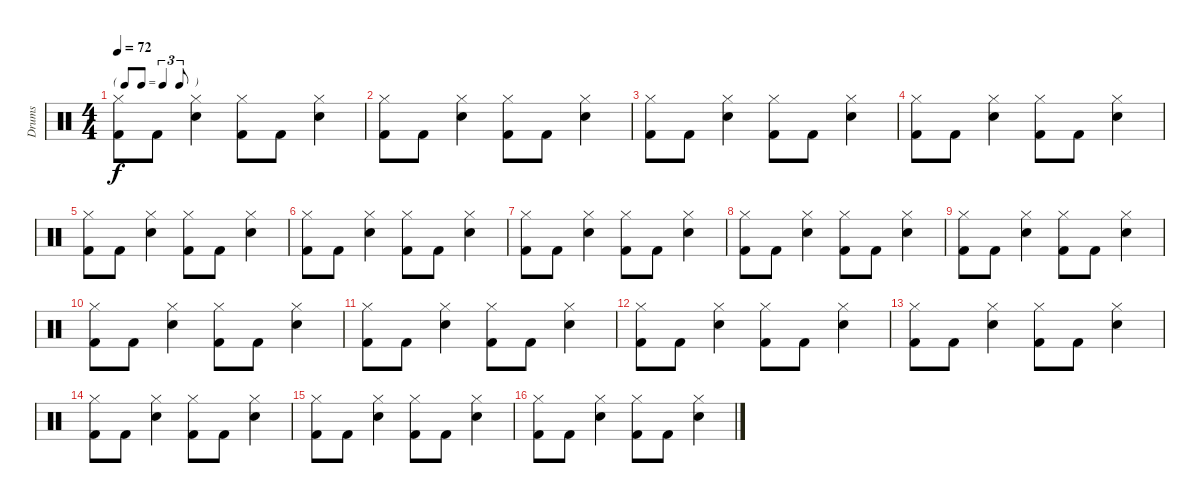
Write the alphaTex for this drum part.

\track ("Drums" "Drums") {instrument percussion}
\staff {score}
\articulation defaults
\ts (4 4)
\tf triplet8th
\tempo 72
\clef neutral
\ks c
("Hi-Hat (closed)" "Kick (hit) 2").8{dy f} "Kick (hit) 2".8 ("Hi-Hat (closed)" "Electric Snare (hit)").4 ("Hi-Hat (closed)" "Kick (hit) 2").8 "Kick (hit) 2".8 ("Hi-Hat (closed)" "Electric Snare (hit)").4 |
("Hi-Hat (closed)" "Kick (hit) 2").8 "Kick (hit) 2".8 ("Hi-Hat (closed)" "Electric Snare (hit)").4 ("Hi-Hat (closed)" "Kick (hit) 2").8 "Kick (hit) 2".8 ("Hi-Hat (closed)" "Electric Snare (hit)").4 |
("Hi-Hat (closed)" "Kick (hit) 2").8 "Kick (hit) 2".8 ("Hi-Hat (closed)" "Electric Snare (hit)").4 ("Hi-Hat (closed)" "Kick (hit) 2").8 "Kick (hit) 2".8 ("Hi-Hat (closed)" "Electric Snare (hit)").4 |
("Hi-Hat (closed)" "Kick (hit) 2").8 "Kick (hit) 2".8 ("Hi-Hat (closed)" "Electric Snare (hit)").4 ("Hi-Hat (closed)" "Kick (hit) 2").8 "Kick (hit) 2".8 ("Hi-Hat (closed)" "Electric Snare (hit)").4 |
("Hi-Hat (closed)" "Kick (hit) 2").8 "Kick (hit) 2".8 ("Hi-Hat (closed)" "Electric Snare (hit)").4 ("Hi-Hat (closed)" "Kick (hit) 2").8 "Kick (hit) 2".8 ("Hi-Hat (closed)" "Electric Snare (hit)").4 |
("Hi-Hat (closed)" "Kick (hit) 2").8 "Kick (hit) 2".8 ("Hi-Hat (closed)" "Electric Snare (hit)").4 ("Hi-Hat (closed)" "Kick (hit) 2").8 "Kick (hit) 2".8 ("Hi-Hat (closed)" "Electric Snare (hit)").4 |
("Hi-Hat (closed)" "Kick (hit) 2").8 "Kick (hit) 2".8 ("Hi-Hat (closed)" "Electric Snare (hit)").4 ("Hi-Hat (closed)" "Kick (hit) 2").8 "Kick (hit) 2".8 ("Hi-Hat (closed)" "Electric Snare (hit)").4 |
("Hi-Hat (closed)" "Kick (hit) 2").8 "Kick (hit) 2".8 ("Hi-Hat (closed)" "Electric Snare (hit)").4 ("Hi-Hat (closed)" "Kick (hit) 2").8 "Kick (hit) 2".8 ("Hi-Hat (closed)" "Electric Snare (hit)").4 |
("Hi-Hat (closed)" "Kick (hit) 2").8 "Kick (hit) 2".8 ("Hi-Hat (closed)" "Electric Snare (hit)").4 ("Hi-Hat (closed)" "Kick (hit) 2").8 "Kick (hit) 2".8 ("Hi-Hat (closed)" "Electric Snare (hit)").4 |
("Hi-Hat (closed)" "Kick (hit) 2").8 "Kick (hit) 2".8 ("Hi-Hat (closed)" "Electric Snare (hit)").4 ("Hi-Hat (closed)" "Kick (hit) 2").8 "Kick (hit) 2".8 ("Hi-Hat (closed)" "Electric Snare (hit)").4 |
("Hi-Hat (closed)" "Kick (hit) 2").8 "Kick (hit) 2".8 ("Hi-Hat (closed)" "Electric Snare (hit)").4 ("Hi-Hat (closed)" "Kick (hit) 2").8 "Kick (hit) 2".8 ("Hi-Hat (closed)" "Electric Snare (hit)").4 |
("Hi-Hat (closed)" "Kick (hit) 2").8 "Kick (hit) 2".8 ("Hi-Hat (closed)" "Electric Snare (hit)").4 ("Hi-Hat (closed)" "Kick (hit) 2").8 "Kick (hit) 2".8 ("Hi-Hat (closed)" "Electric Snare (hit)").4 |
("Hi-Hat (closed)" "Kick (hit) 2").8 "Kick (hit) 2".8 ("Hi-Hat (closed)" "Electric Snare (hit)").4 ("Hi-Hat (closed)" "Kick (hit) 2").8 "Kick (hit) 2".8 ("Hi-Hat (closed)" "Electric Snare (hit)").4 |
("Hi-Hat (closed)" "Kick (hit) 2").8 "Kick (hit) 2".8 ("Hi-Hat (closed)" "Electric Snare (hit)").4 ("Hi-Hat (closed)" "Kick (hit) 2").8 "Kick (hit) 2".8 ("Hi-Hat (closed)" "Electric Snare (hit)").4 |
("Hi-Hat (closed)" "Kick (hit) 2").8 "Kick (hit) 2".8 ("Hi-Hat (closed)" "Electric Snare (hit)").4 ("Hi-Hat (closed)" "Kick (hit) 2").8 "Kick (hit) 2".8 ("Hi-Hat (closed)" "Electric Snare (hit)").4 |
("Hi-Hat (closed)" "Kick (hit) 2").8 "Kick (hit) 2".8 ("Hi-Hat (closed)" "Electric Snare (hit)").4 ("Hi-Hat (closed)" "Kick (hit) 2").8 "Kick (hit) 2".8 ("Hi-Hat (closed)" "Electric Snare (hit)").4
